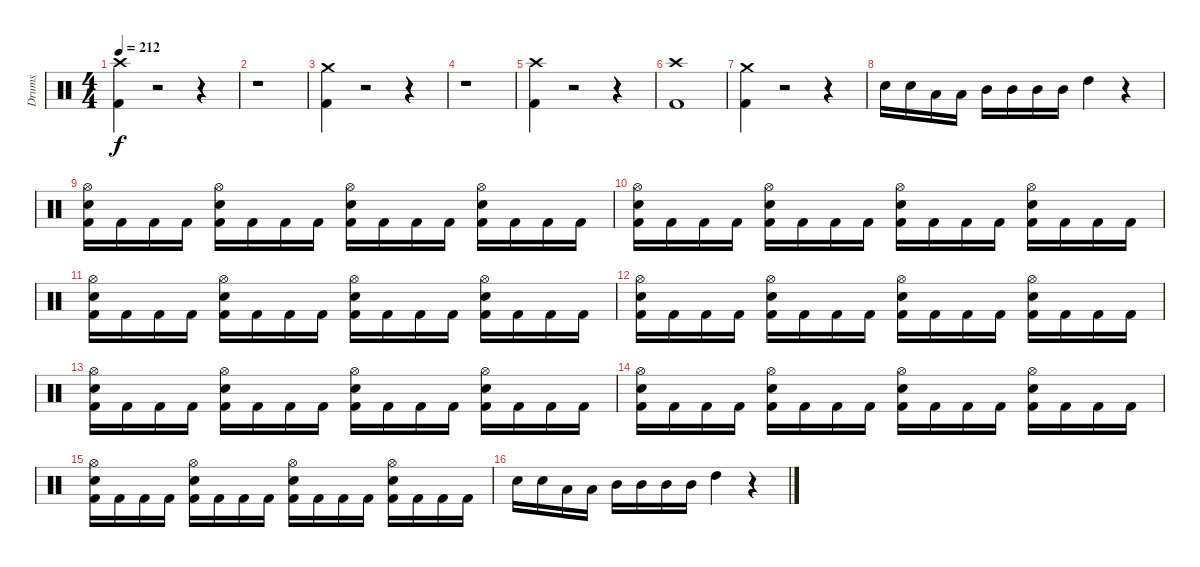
\track ("Drums" "Drums") {instrument percussion}
\staff {score}
\articulation defaults
\ts (4 4)
\tempo 212
\clef neutral
\ks c
("Crash high (hit)" "Kick (hit) 2").4{dy f} r.2 r.4 |
r.1 |
("Crash medium (hit)" "Kick (hit) 2").4 r.2 r.4 |
r.1 |
("Crash high (hit)" "Kick (hit) 2").4 r.2 r.4 |
("Crash high (hit)" "Kick (hit) 2").1 |
("Crash medium (hit)" "Kick (hit) 2").4 r.2 r.4 |
"Snare (hit) 2".16 "Snare (hit) 2".16 "Low Tom (hit)".16 "Low Tom (hit)".16 "Mid Tom (hit)".16 "Mid Tom (hit)".16 "Mid Tom (hit)".16 "Mid Tom (hit)".16 "High Tom (hit)".4 r.4 |
("Hi-Hat (open)" "Snare (hit) 2" "Kick (hit) 2").16 "Kick (hit) 2".16 "Kick (hit) 2".16 "Kick (hit) 2".16 ("Hi-Hat (open)" "Snare (hit) 2" "Kick (hit) 2").16 "Kick (hit) 2".16 "Kick (hit) 2".16 "Kick (hit) 2".16 ("Hi-Hat (open)" "Snare (hit) 2" "Kick (hit) 2").16 "Kick (hit) 2".16 "Kick (hit) 2".16 "Kick (hit) 2".16 ("Hi-Hat (open)" "Snare (hit) 2" "Kick (hit) 2").16 "Kick (hit) 2".16 "Kick (hit) 2".16 "Kick (hit) 2".16 |
("Hi-Hat (open)" "Snare (hit) 2" "Kick (hit) 2").16 "Kick (hit) 2".16 "Kick (hit) 2".16 "Kick (hit) 2".16 ("Hi-Hat (open)" "Snare (hit) 2" "Kick (hit) 2").16 "Kick (hit) 2".16 "Kick (hit) 2".16 "Kick (hit) 2".16 ("Hi-Hat (open)" "Snare (hit) 2" "Kick (hit) 2").16 "Kick (hit) 2".16 "Kick (hit) 2".16 "Kick (hit) 2".16 ("Hi-Hat (open)" "Snare (hit) 2" "Kick (hit) 2").16 "Kick (hit) 2".16 "Kick (hit) 2".16 "Kick (hit) 2".16 |
("Hi-Hat (open)" "Snare (hit) 2" "Kick (hit) 2").16 "Kick (hit) 2".16 "Kick (hit) 2".16 "Kick (hit) 2".16 ("Hi-Hat (open)" "Snare (hit) 2" "Kick (hit) 2").16 "Kick (hit) 2".16 "Kick (hit) 2".16 "Kick (hit) 2".16 ("Hi-Hat (open)" "Snare (hit) 2" "Kick (hit) 2").16 "Kick (hit) 2".16 "Kick (hit) 2".16 "Kick (hit) 2".16 ("Hi-Hat (open)" "Snare (hit) 2" "Kick (hit) 2").16 "Kick (hit) 2".16 "Kick (hit) 2".16 "Kick (hit) 2".16 |
("Hi-Hat (open)" "Snare (hit) 2" "Kick (hit) 2").16 "Kick (hit) 2".16 "Kick (hit) 2".16 "Kick (hit) 2".16 ("Hi-Hat (open)" "Snare (hit) 2" "Kick (hit) 2").16 "Kick (hit) 2".16 "Kick (hit) 2".16 "Kick (hit) 2".16 ("Hi-Hat (open)" "Snare (hit) 2" "Kick (hit) 2").16 "Kick (hit) 2".16 "Kick (hit) 2".16 "Kick (hit) 2".16 ("Hi-Hat (open)" "Snare (hit) 2" "Kick (hit) 2").16 "Kick (hit) 2".16 "Kick (hit) 2".16 "Kick (hit) 2".16 |
("Hi-Hat (open)" "Snare (hit) 2" "Kick (hit) 2").16 "Kick (hit) 2".16 "Kick (hit) 2".16 "Kick (hit) 2".16 ("Hi-Hat (open)" "Snare (hit) 2" "Kick (hit) 2").16 "Kick (hit) 2".16 "Kick (hit) 2".16 "Kick (hit) 2".16 ("Hi-Hat (open)" "Snare (hit) 2" "Kick (hit) 2").16 "Kick (hit) 2".16 "Kick (hit) 2".16 "Kick (hit) 2".16 ("Hi-Hat (open)" "Snare (hit) 2" "Kick (hit) 2").16 "Kick (hit) 2".16 "Kick (hit) 2".16 "Kick (hit) 2".16 |
("Hi-Hat (open)" "Snare (hit) 2" "Kick (hit) 2").16 "Kick (hit) 2".16 "Kick (hit) 2".16 "Kick (hit) 2".16 ("Hi-Hat (open)" "Snare (hit) 2" "Kick (hit) 2").16 "Kick (hit) 2".16 "Kick (hit) 2".16 "Kick (hit) 2".16 ("Hi-Hat (open)" "Snare (hit) 2" "Kick (hit) 2").16 "Kick (hit) 2".16 "Kick (hit) 2".16 "Kick (hit) 2".16 ("Hi-Hat (open)" "Snare (hit) 2" "Kick (hit) 2").16 "Kick (hit) 2".16 "Kick (hit) 2".16 "Kick (hit) 2".16 |
("Hi-Hat (open)" "Snare (hit) 2" "Kick (hit) 2").16 "Kick (hit) 2".16 "Kick (hit) 2".16 "Kick (hit) 2".16 ("Hi-Hat (open)" "Snare (hit) 2" "Kick (hit) 2").16 "Kick (hit) 2".16 "Kick (hit) 2".16 "Kick (hit) 2".16 ("Hi-Hat (open)" "Snare (hit) 2" "Kick (hit) 2").16 "Kick (hit) 2".16 "Kick (hit) 2".16 "Kick (hit) 2".16 ("Hi-Hat (open)" "Snare (hit) 2" "Kick (hit) 2").16 "Kick (hit) 2".16 "Kick (hit) 2".16 "Kick (hit) 2".16 |
"Snare (hit) 2".16 "Snare (hit) 2".16 "Low Tom (hit)".16 "Low Tom (hit)".16 "Mid Tom (hit)".16 "Mid Tom (hit)".16 "Mid Tom (hit)".16 "Mid Tom (hit)".16 "High Tom (hit)".4 r.4
